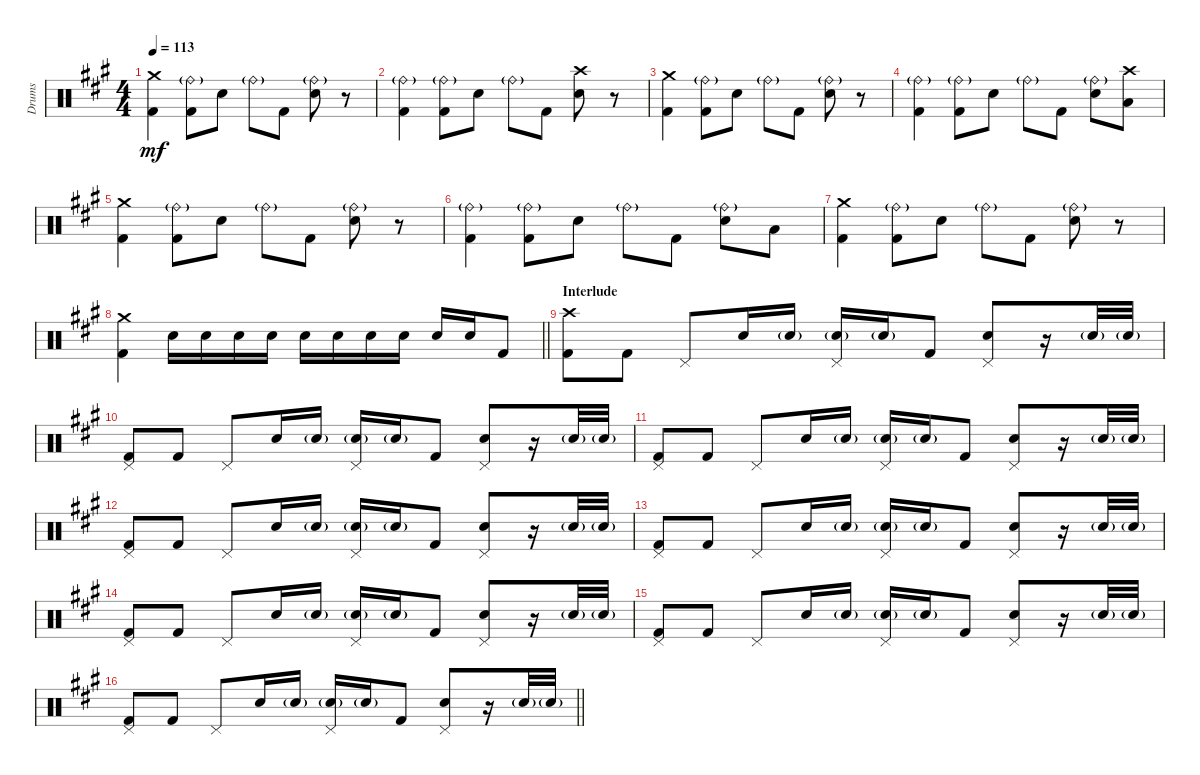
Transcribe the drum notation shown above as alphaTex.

\track ("Drums" "Drums") {instrument percussion}
\staff {score}
\articulation defaults
\ts (4 4)
\tempo 113
\clef neutral
\ks f#minor
("Crash medium (hit)" "Kick (hit) 2").4{dy mf} ("Ride (bell)"{g} "Kick (hit) 2").8 "Snare (hit) 2".8 "Ride (bell)"{g}.8 "Kick (hit) 2".8 ("Ride (bell)"{g} "Snare (hit) 2").8 r.8 |
("Ride (bell)"{g} "Kick (hit) 2").4 ("Ride (bell)"{g} "Kick (hit) 2").8 "Snare (hit) 2".8 "Ride (bell)"{g}.8 "Kick (hit) 2".8 ("Crash high (hit)" "Snare (hit) 2").8 r.8 |
("Crash medium (hit)" "Kick (hit) 2").4 ("Ride (bell)"{g} "Kick (hit) 2").8 "Snare (hit) 2".8 "Ride (bell)"{g}.8 "Kick (hit) 2".8 ("Ride (bell)"{g} "Snare (hit) 2").8 r.8 |
("Ride (bell)"{g} "Kick (hit) 2").4 ("Ride (bell)"{g} "Kick (hit) 2").8 "Snare (hit) 2".8 "Ride (bell)"{g}.8 "Kick (hit) 2".8 ("Ride (bell)"{g} "Snare (hit) 2").8 ("Crash high (hit)" "Low Floor Tom (hit)").8 |
("Crash medium (hit)" "Kick (hit) 2").4 ("Ride (bell)"{g} "Kick (hit) 2").8 "Snare (hit) 2".8 "Ride (bell)"{g}.8 "Kick (hit) 2".8 ("Ride (bell)"{g} "Snare (hit) 2").8 r.8 |
("Ride (bell)"{g} "Kick (hit) 2").4 ("Ride (bell)"{g} "Kick (hit) 2").8 "Snare (hit) 2".8 "Ride (bell)"{g}.8 "Kick (hit) 2".8 ("Ride (bell)"{g} "Snare (hit) 2").8 "Low Floor Tom (hit)".8 |
("Crash medium (hit)" "Kick (hit) 2").4 ("Ride (bell)"{g} "Kick (hit) 2").8 "Snare (hit) 2".8 "Ride (bell)"{g}.8 "Kick (hit) 2".8 ("Ride (bell)"{g} "Snare (hit) 2").8 r.8 |
\barLineRight lightlight
("Crash medium (hit)" "Kick (hit) 2").4 "Electric Snare (hit)".16 "Electric Snare (hit)".16 "Electric Snare (hit)".16 "Electric Snare (hit)".16 "Electric Snare (hit)".16 "Electric Snare (hit)".16 "Electric Snare (hit)".16 "Electric Snare (hit)".16 "Electric Snare (hit)".16 "Electric Snare (hit)".16 "Kick (hit) 2".8 |
\section ("" "Interlude")
("Crash high (hit)" "Kick (hit) 2").8 "Kick (hit) 2".8 "Pedal Hi-Hat (hit)".8 "Snare (hit) 2".16 "Snare (hit) 2"{g}.16 ("Pedal Hi-Hat (hit)" "Snare (hit) 2"{g}).16 "Snare (hit) 2"{g}.16 "Kick (hit) 2".8 ("Pedal Hi-Hat (hit)" "Snare (hit) 2").8 r.16 "Snare (hit) 2"{g}.32 "Snare (hit) 2"{g}.32 |
("Pedal Hi-Hat (hit)" "Kick (hit) 2").8 "Kick (hit) 2".8 "Pedal Hi-Hat (hit)".8 "Snare (hit) 2".16 "Snare (hit) 2"{g}.16 ("Pedal Hi-Hat (hit)" "Snare (hit) 2"{g}).16 "Snare (hit) 2"{g}.16 "Kick (hit) 2".8 ("Pedal Hi-Hat (hit)" "Snare (hit) 2").8 r.16 "Snare (hit) 2"{g}.32 "Snare (hit) 2"{g}.32 |
("Pedal Hi-Hat (hit)" "Kick (hit) 2").8 "Kick (hit) 2".8 "Pedal Hi-Hat (hit)".8 "Snare (hit) 2".16 "Snare (hit) 2"{g}.16 ("Pedal Hi-Hat (hit)" "Snare (hit) 2"{g}).16 "Snare (hit) 2"{g}.16 "Kick (hit) 2".8 ("Pedal Hi-Hat (hit)" "Snare (hit) 2").8 r.16 "Snare (hit) 2"{g}.32 "Snare (hit) 2"{g}.32 |
("Pedal Hi-Hat (hit)" "Kick (hit) 2").8 "Kick (hit) 2".8 "Pedal Hi-Hat (hit)".8 "Snare (hit) 2".16 "Snare (hit) 2"{g}.16 ("Pedal Hi-Hat (hit)" "Snare (hit) 2"{g}).16 "Snare (hit) 2"{g}.16 "Kick (hit) 2".8 ("Pedal Hi-Hat (hit)" "Snare (hit) 2").8 r.16 "Snare (hit) 2"{g}.32 "Snare (hit) 2"{g}.32 |
("Pedal Hi-Hat (hit)" "Kick (hit) 2").8 "Kick (hit) 2".8 "Pedal Hi-Hat (hit)".8 "Snare (hit) 2".16 "Snare (hit) 2"{g}.16 ("Pedal Hi-Hat (hit)" "Snare (hit) 2"{g}).16 "Snare (hit) 2"{g}.16 "Kick (hit) 2".8 ("Pedal Hi-Hat (hit)" "Snare (hit) 2").8 r.16 "Snare (hit) 2"{g}.32 "Snare (hit) 2"{g}.32 |
("Pedal Hi-Hat (hit)" "Kick (hit) 2").8 "Kick (hit) 2".8 "Pedal Hi-Hat (hit)".8 "Snare (hit) 2".16 "Snare (hit) 2"{g}.16 ("Pedal Hi-Hat (hit)" "Snare (hit) 2"{g}).16 "Snare (hit) 2"{g}.16 "Kick (hit) 2".8 ("Pedal Hi-Hat (hit)" "Snare (hit) 2").8 r.16 "Snare (hit) 2"{g}.32 "Snare (hit) 2"{g}.32 |
("Pedal Hi-Hat (hit)" "Kick (hit) 2").8 "Kick (hit) 2".8 "Pedal Hi-Hat (hit)".8 "Snare (hit) 2".16 "Snare (hit) 2"{g}.16 ("Pedal Hi-Hat (hit)" "Snare (hit) 2"{g}).16 "Snare (hit) 2"{g}.16 "Kick (hit) 2".8 ("Pedal Hi-Hat (hit)" "Snare (hit) 2").8 r.16 "Snare (hit) 2"{g}.32 "Snare (hit) 2"{g}.32 |
\barLineRight lightlight
("Pedal Hi-Hat (hit)" "Kick (hit) 2").8 "Kick (hit) 2".8 "Pedal Hi-Hat (hit)".8 "Snare (hit) 2".16 "Snare (hit) 2"{g}.16 ("Pedal Hi-Hat (hit)" "Snare (hit) 2"{g}).16 "Snare (hit) 2"{g}.16 "Kick (hit) 2".8 ("Pedal Hi-Hat (hit)" "Snare (hit) 2").8 r.16 "Snare (hit) 2"{g}.32 "Snare (hit) 2"{g}.32
